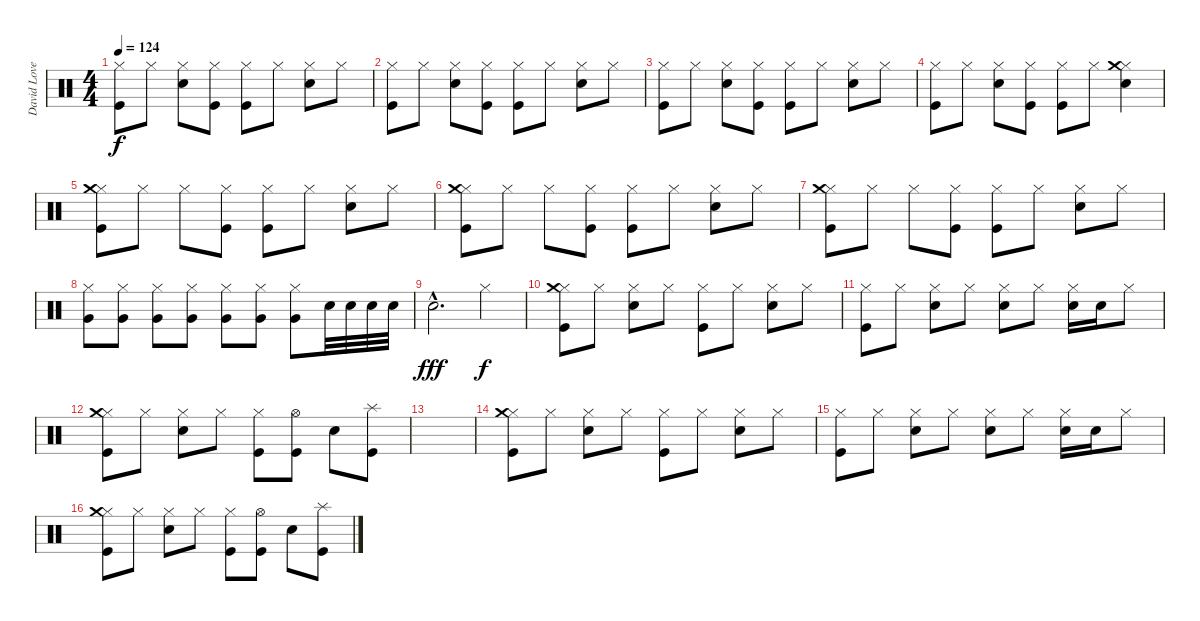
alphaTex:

\track ("David Lovering" "David Love") {instrument percussion}
\staff {score}
\articulation defaults
\ts (4 4)
\tempo 124
\clef neutral
\ks c
("Hi-Hat (closed)" "Kick (hit)").8{dy f} "Hi-Hat (closed)".8 ("Hi-Hat (closed)" "Snare (hit) 2").8 ("Hi-Hat (closed)" "Kick (hit)").8 ("Hi-Hat (closed)" "Kick (hit)").8 "Hi-Hat (closed)".8 ("Hi-Hat (closed)" "Snare (hit) 2").8 "Hi-Hat (closed)".8 |
("Hi-Hat (closed)" "Kick (hit)").8 "Hi-Hat (closed)".8 ("Hi-Hat (closed)" "Snare (hit) 2").8 ("Hi-Hat (closed)" "Kick (hit)").8 ("Hi-Hat (closed)" "Kick (hit)").8 "Hi-Hat (closed)".8 ("Hi-Hat (closed)" "Snare (hit) 2").8 "Hi-Hat (closed)".8 |
("Hi-Hat (closed)" "Kick (hit)").8 "Hi-Hat (closed)".8 ("Hi-Hat (closed)" "Snare (hit) 2").8 ("Hi-Hat (closed)" "Kick (hit)").8 ("Hi-Hat (closed)" "Kick (hit)").8 "Hi-Hat (closed)".8 ("Hi-Hat (closed)" "Snare (hit) 2").8 "Hi-Hat (closed)".8 |
("Hi-Hat (closed)" "Kick (hit)").8 "Hi-Hat (closed)".8 ("Hi-Hat (closed)" "Snare (hit) 2").8 ("Hi-Hat (closed)" "Kick (hit)").8 ("Hi-Hat (closed)" "Kick (hit)").8 "Hi-Hat (closed)".8 ("Hi-Hat (closed)" "Crash medium (hit)" "Snare (hit) 2").4 |
\section ("" "")
("Hi-Hat (closed)" "Crash medium (hit)" "Kick (hit)").8 "Hi-Hat (closed)".8 "Hi-Hat (closed)".8 ("Hi-Hat (closed)" "Kick (hit)").8 ("Hi-Hat (closed)" "Kick (hit)").8 "Hi-Hat (closed)".8 ("Hi-Hat (closed)" "Snare (hit) 2").8 "Hi-Hat (closed)".8 |
("Hi-Hat (closed)" "Crash medium (hit)" "Kick (hit)").8 "Hi-Hat (closed)".8 "Hi-Hat (closed)".8 ("Hi-Hat (closed)" "Kick (hit)").8 ("Hi-Hat (closed)" "Kick (hit)").8 "Hi-Hat (closed)".8 ("Hi-Hat (closed)" "Snare (hit) 2").8 "Hi-Hat (closed)".8 |
("Hi-Hat (closed)" "Crash medium (hit)" "Kick (hit)").8 "Hi-Hat (closed)".8 "Hi-Hat (closed)".8 ("Hi-Hat (closed)" "Kick (hit)").8 ("Hi-Hat (closed)" "Kick (hit)").8 "Hi-Hat (closed)".8 ("Hi-Hat (closed)" "Snare (hit) 2").8 "Hi-Hat (closed)".8 |
("Hi-Hat (closed)" "Very Low Tom (hit)").8 ("Hi-Hat (closed)" "Very Low Tom (hit)").8 ("Hi-Hat (closed)" "Very Low Tom (hit)").8 ("Hi-Hat (closed)" "Very Low Tom (hit)").8 ("Hi-Hat (closed)" "Very Low Tom (hit)").8 ("Hi-Hat (closed)" "Very Low Tom (hit)").8 ("Hi-Hat (closed)" "Very Low Tom (hit)").8 "Snare (hit) 2".32 "Snare (hit) 2".32 "Snare (hit) 2".32 "Snare (hit) 2".32 |
\section ("" "")
"Snare (hit) 2"{hac}.2{d dy fff} "Hi-Hat (closed)".4{dy f} |
("Hi-Hat (closed)" "Crash medium (hit)" "Kick (hit)").8 "Hi-Hat (closed)".8 ("Hi-Hat (closed)" "Snare (hit) 2").8 "Hi-Hat (closed)".8 ("Hi-Hat (closed)" "Kick (hit)").8 "Hi-Hat (closed)".8 ("Hi-Hat (closed)" "Snare (hit) 2").8 "Hi-Hat (closed)".8 |
("Hi-Hat (closed)" "Kick (hit)").8 "Hi-Hat (closed)".8 ("Hi-Hat (closed)" "Snare (hit) 2").8 "Hi-Hat (closed)".8 ("Hi-Hat (closed)" "Snare (hit) 2").8 "Hi-Hat (closed)".8 ("Hi-Hat (closed)" "Snare (hit) 2").16 "Snare (hit) 2".16 "Hi-Hat (closed)".8 |
("Hi-Hat (closed)" "Crash medium (hit)" "Kick (hit)").8 "Hi-Hat (closed)".8 ("Hi-Hat (closed)" "Snare (hit) 2").8 "Hi-Hat (closed)".8 ("Hi-Hat (closed)" "Kick (hit)").8 ("Hi-Hat (open)" "Kick (hit)").8 "Snare (hit) 2".8 ("Splash (hit)" "Kick (hit)").8 |
|
("Hi-Hat (closed)" "Crash medium (hit)" "Kick (hit)").8 "Hi-Hat (closed)".8 ("Hi-Hat (closed)" "Snare (hit) 2").8 "Hi-Hat (closed)".8 ("Hi-Hat (closed)" "Kick (hit)").8 "Hi-Hat (closed)".8 ("Hi-Hat (closed)" "Snare (hit) 2").8 "Hi-Hat (closed)".8 |
("Hi-Hat (closed)" "Kick (hit)").8 "Hi-Hat (closed)".8 ("Hi-Hat (closed)" "Snare (hit) 2").8 "Hi-Hat (closed)".8 ("Hi-Hat (closed)" "Snare (hit) 2").8 "Hi-Hat (closed)".8 ("Hi-Hat (closed)" "Snare (hit) 2").16 "Snare (hit) 2".16 "Hi-Hat (closed)".8 |
("Hi-Hat (closed)" "Crash medium (hit)" "Kick (hit)").8 "Hi-Hat (closed)".8 ("Hi-Hat (closed)" "Snare (hit) 2").8 "Hi-Hat (closed)".8 ("Hi-Hat (closed)" "Kick (hit)").8 ("Hi-Hat (open)" "Kick (hit)").8 "Snare (hit) 2".8 ("Splash (hit)" "Kick (hit)").8
